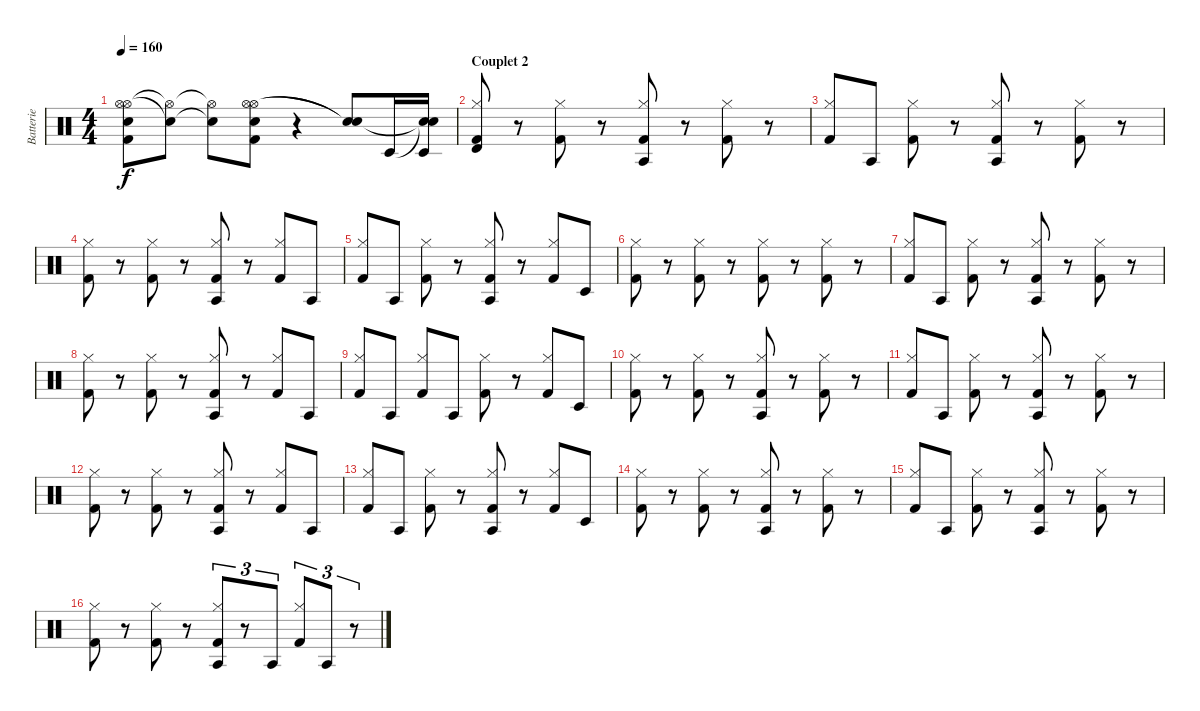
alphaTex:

\track ("Batterie" "Batterie") {instrument percussion}
\staff {score}
\articulation defaults
\ts (4 4)
\tempo 160
\clef neutral
\ks c
("Hi-Hat (open)" "Hi-Hat (open)" "Snare (hit) 2" "Kick (hit) 2").8{dy f} ("Hi-Hat (open)"{t} "Snare (hit)"{t}).8 ("Hi-Hat (open)"{t} "Snare (hit)"{t}).8 ("Hi-Hat (open)" "Hi-Hat (open)" "Snare (hit) 2" "Kick (hit) 2").8 r.4 ("Snare (hit)"{t} "Snare (hit)"{t}).8 "Timbale low (hit)".16 ("Snare (hit)"{t} "Snare (hit)"{t} "Timbale low (hit)").16 |
\section ("" "Couplet 2")
("Hi-Hat (closed)" "Timbale high (hit)" "Kick (hit) 2").8 r.8 ("Hi-Hat (closed)" "Kick (hit) 2").8 r.8 ("Hi-Hat (closed)" "Agogo tow (hit)" "Kick (hit) 2").8 r.8 ("Hi-Hat (closed)" "Kick (hit) 2").8 r.8 |
("Hi-Hat (closed)" "Kick (hit) 2").8 "Agogo tow (hit)".8 ("Hi-Hat (closed)" "Kick (hit) 2").8 r.8 ("Hi-Hat (closed)" "Agogo tow (hit)" "Kick (hit) 2").8 r.8 ("Hi-Hat (closed)" "Kick (hit) 2").8 r.8 |
("Hi-Hat (closed)" "Kick (hit) 2").8 r.8 ("Hi-Hat (closed)" "Kick (hit) 2").8 r.8 ("Hi-Hat (closed)" "Agogo tow (hit)" "Kick (hit) 2").8 r.8 ("Hi-Hat (closed)" "Kick (hit) 2").8 "Agogo tow (hit)".8 |
("Hi-Hat (closed)" "Kick (hit) 2").8 "Agogo tow (hit)".8 ("Hi-Hat (closed)" "Kick (hit) 2").8 r.8 ("Hi-Hat (closed)" "Agogo tow (hit)" "Kick (hit) 2").8 r.8 ("Hi-Hat (closed)" "Kick (hit) 2").8 "Timbale low (hit)".8 |
("Hi-Hat (closed)" "Kick (hit) 2").8 r.8 ("Hi-Hat (closed)" "Kick (hit) 2").8 r.8 ("Hi-Hat (closed)" "Kick (hit) 2").8 r.8 ("Hi-Hat (closed)" "Kick (hit) 2").8 r.8 |
("Hi-Hat (closed)" "Kick (hit) 2").8 "Agogo tow (hit)".8 ("Hi-Hat (closed)" "Kick (hit) 2").8 r.8 ("Hi-Hat (closed)" "Agogo tow (hit)" "Kick (hit) 2").8 r.8 ("Hi-Hat (closed)" "Kick (hit) 2").8 r.8 |
("Hi-Hat (closed)" "Kick (hit) 2").8 r.8 ("Hi-Hat (closed)" "Kick (hit) 2").8 r.8 ("Hi-Hat (closed)" "Agogo tow (hit)" "Kick (hit) 2").8 r.8 ("Hi-Hat (closed)" "Kick (hit) 2").8 "Agogo tow (hit)".8 |
("Hi-Hat (closed)" "Kick (hit) 2").8 "Agogo tow (hit)".8 ("Hi-Hat (closed)" "Kick (hit) 2").8 "Agogo tow (hit)".8 ("Hi-Hat (closed)" "Kick (hit) 2").8 r.8 ("Hi-Hat (closed)" "Kick (hit) 2").8 "Timbale low (hit)".8 |
("Hi-Hat (closed)" "Kick (hit) 2").8 r.8 ("Hi-Hat (closed)" "Kick (hit) 2").8 r.8 ("Hi-Hat (closed)" "Agogo tow (hit)" "Kick (hit) 2").8 r.8 ("Hi-Hat (closed)" "Kick (hit) 2").8 r.8 |
("Hi-Hat (closed)" "Kick (hit) 2").8 "Agogo tow (hit)".8 ("Hi-Hat (closed)" "Kick (hit) 2").8 r.8 ("Hi-Hat (closed)" "Agogo tow (hit)" "Kick (hit) 2").8 r.8 ("Hi-Hat (closed)" "Kick (hit) 2").8 r.8 |
("Hi-Hat (closed)" "Kick (hit) 2").8 r.8 ("Hi-Hat (closed)" "Kick (hit) 2").8 r.8 ("Hi-Hat (closed)" "Agogo tow (hit)" "Kick (hit) 2").8 r.8 ("Hi-Hat (closed)" "Kick (hit) 2").8 "Agogo tow (hit)".8 |
("Hi-Hat (closed)" "Kick (hit) 2").8 "Agogo tow (hit)".8 ("Hi-Hat (closed)" "Kick (hit) 2").8 r.8 ("Hi-Hat (closed)" "Agogo tow (hit)" "Kick (hit) 2").8 r.8 ("Hi-Hat (closed)" "Kick (hit) 2").8 "Timbale low (hit)".8 |
("Hi-Hat (closed)" "Kick (hit) 2").8 r.8 ("Hi-Hat (closed)" "Kick (hit) 2").8 r.8 ("Hi-Hat (closed)" "Agogo tow (hit)" "Kick (hit) 2").8 r.8 ("Hi-Hat (closed)" "Kick (hit) 2").8 r.8 |
("Hi-Hat (closed)" "Kick (hit) 2").8 "Agogo tow (hit)".8 ("Hi-Hat (closed)" "Kick (hit) 2").8 r.8 ("Hi-Hat (closed)" "Agogo tow (hit)" "Kick (hit) 2").8 r.8 ("Hi-Hat (closed)" "Kick (hit) 2").8 r.8 |
("Hi-Hat (closed)" "Kick (hit) 2").8 r.8 ("Hi-Hat (closed)" "Kick (hit) 2").8 r.8 ("Hi-Hat (closed)" "Agogo tow (hit)" "Kick (hit) 2").8{tu (3 2)} r.8{tu (3 2)} "Agogo tow (hit)".8{tu (3 2)} ("Hi-Hat (closed)" "Kick (hit) 2").8{tu (3 2)} "Agogo tow (hit)".8{tu (3 2)} r.8{tu (3 2)}
